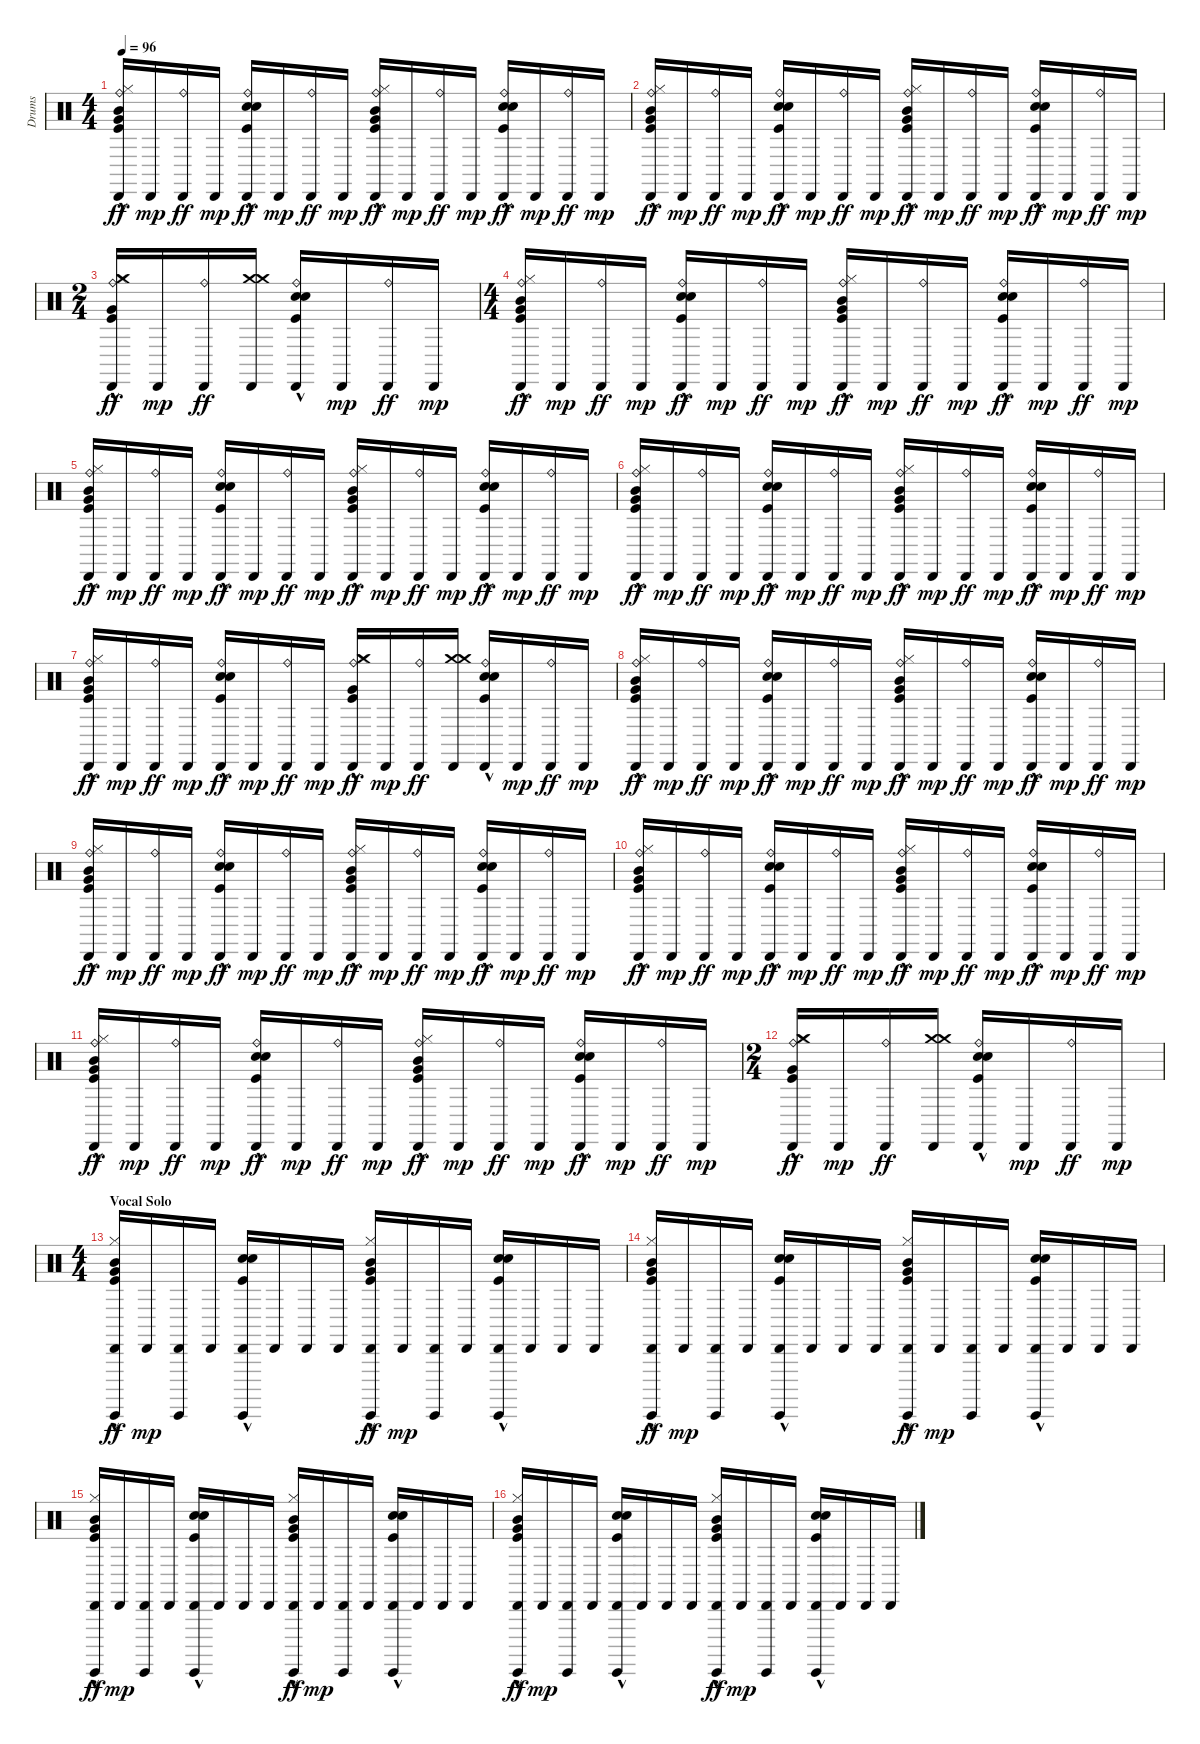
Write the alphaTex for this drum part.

\track ("Drums" "Drums") {instrument percussion}
\staff {score}
\articulation defaults
\ts (4 4)
\tempo 96
\clef neutral
\ks c
("Kick (hit)"{hac} "Hi-Hat (closed)"{hac} "Very Low Tom (hit)"{hac} "Cabasa (hit)" "Ride (bell)" "Mid Tom (hit)"{hac}).16{dy ff} "Cabasa (hit)".16{dy mp} ("Cabasa (hit)" "Ride (bell)").16{dy ff} "Cabasa (hit)".16{dy mp} ("Kick (hit)"{hac} "Snare (hit) 2"{hac} "Electric Snare (hit)"{hac} "Cabasa (hit)" "Ride (bell)").16{dy ff} "Cabasa (hit)".16{dy mp} ("Cabasa (hit)" "Ride (bell)").16{dy ff} "Cabasa (hit)".16{dy mp} ("Kick (hit)"{hac} "Hi-Hat (closed)"{hac} "Very Low Tom (hit)"{hac} "Cabasa (hit)" "Ride (bell)" "Mid Tom (hit)"{hac}).16{dy ff} "Cabasa (hit)".16{dy mp} ("Cabasa (hit)" "Ride (bell)").16{dy ff} "Cabasa (hit)".16{dy mp} ("Kick (hit)"{hac} "Snare (hit) 2"{hac} "Electric Snare (hit)"{hac} "Cabasa (hit)" "Ride (bell)").16{dy ff} "Cabasa (hit)".16{dy mp} ("Cabasa (hit)" "Ride (bell)").16{dy ff} "Cabasa (hit)".16{dy mp} |
("Kick (hit)"{hac} "Hi-Hat (closed)"{hac} "Very Low Tom (hit)"{hac} "Cabasa (hit)" "Ride (bell)" "Mid Tom (hit)"{hac}).16{dy ff} "Cabasa (hit)".16{dy mp} ("Cabasa (hit)" "Ride (bell)").16{dy ff} "Cabasa (hit)".16{dy mp} ("Kick (hit)"{hac} "Snare (hit) 2"{hac} "Electric Snare (hit)"{hac} "Cabasa (hit)" "Ride (bell)").16{dy ff} "Cabasa (hit)".16{dy mp} ("Cabasa (hit)" "Ride (bell)").16{dy ff} "Cabasa (hit)".16{dy mp} ("Kick (hit)"{hac} "Hi-Hat (closed)"{hac} "Very Low Tom (hit)"{hac} "Cabasa (hit)" "Ride (bell)" "Mid Tom (hit)").16{dy ff} "Cabasa (hit)".16{dy mp} ("Cabasa (hit)" "Ride (bell)").16{dy ff} "Cabasa (hit)".16{dy mp} ("Kick (hit)"{hac} "Snare (hit) 2"{hac} "Electric Snare (hit)"{hac} "Cabasa (hit)" "Ride (bell)").16{dy ff} "Cabasa (hit)".16{dy mp} ("Cabasa (hit)" "Ride (bell)").16{dy ff} "Cabasa (hit)".16{dy mp} |
\ts (2 4)
("Crash medium (hit)"{hac} "Kick (hit)"{hac} "Hi-Hat (closed)"{hac} "Very Low Tom (hit)"{hac} "Cabasa (hit)" "Ride (bell)").16{dy ff} "Cabasa (hit)".16{dy mp} ("Cabasa (hit)" "Ride (bell)").16{dy ff} ("Crash medium (hit)" "Cabasa (hit)" "Crash medium (hit)").16 ("Kick (hit)"{hac} "Snare (hit) 2"{hac} "Electric Snare (hit)"{hac} "Cabasa (hit)" "Ride (bell)").16 "Cabasa (hit)".16{dy mp} ("Cabasa (hit)" "Ride (bell)").16{dy ff} "Cabasa (hit)".16{dy mp} |
\ts (4 4)
("Kick (hit)"{hac} "Hi-Hat (closed)"{hac} "Very Low Tom (hit)"{hac} "Cabasa (hit)" "Ride (bell)" "Mid Tom (hit)"{hac}).16{dy ff} "Cabasa (hit)".16{dy mp} ("Cabasa (hit)" "Ride (bell)").16{dy ff} "Cabasa (hit)".16{dy mp} ("Kick (hit)"{hac} "Snare (hit) 2"{hac} "Electric Snare (hit)"{hac} "Cabasa (hit)" "Ride (bell)").16{dy ff} "Cabasa (hit)".16{dy mp} ("Cabasa (hit)" "Ride (bell)").16{dy ff} "Cabasa (hit)".16{dy mp} ("Kick (hit)"{hac} "Hi-Hat (closed)"{hac} "Very Low Tom (hit)"{hac} "Cabasa (hit)" "Ride (bell)" "Mid Tom (hit)"{hac}).16{dy ff} "Cabasa (hit)".16{dy mp} ("Cabasa (hit)" "Ride (bell)").16{dy ff} "Cabasa (hit)".16{dy mp} ("Kick (hit)"{hac} "Snare (hit) 2"{hac} "Electric Snare (hit)"{hac} "Cabasa (hit)" "Ride (bell)").16{dy ff} "Cabasa (hit)".16{dy mp} ("Cabasa (hit)" "Ride (bell)").16{dy ff} "Cabasa (hit)".16{dy mp} |
("Kick (hit)"{hac} "Hi-Hat (closed)"{hac} "Very Low Tom (hit)"{hac} "Cabasa (hit)" "Ride (bell)" "Mid Tom (hit)"{hac}).16{dy ff} "Cabasa (hit)".16{dy mp} ("Cabasa (hit)" "Ride (bell)").16{dy ff} "Cabasa (hit)".16{dy mp} ("Kick (hit)"{hac} "Snare (hit) 2"{hac} "Electric Snare (hit)"{hac} "Cabasa (hit)" "Ride (bell)").16{dy ff} "Cabasa (hit)".16{dy mp} ("Cabasa (hit)" "Ride (bell)").16{dy ff} "Cabasa (hit)".16{dy mp} ("Kick (hit)"{hac} "Hi-Hat (closed)"{hac} "Very Low Tom (hit)"{hac} "Cabasa (hit)" "Ride (bell)" "Mid Tom (hit)"{hac}).16{dy ff} "Cabasa (hit)".16{dy mp} ("Cabasa (hit)" "Ride (bell)").16{dy ff} "Cabasa (hit)".16{dy mp} ("Kick (hit)"{hac} "Snare (hit) 2"{hac} "Electric Snare (hit)"{hac} "Cabasa (hit)" "Ride (bell)").16{dy ff} "Cabasa (hit)".16{dy mp} ("Cabasa (hit)" "Ride (bell)").16{dy ff} "Cabasa (hit)".16{dy mp} |
("Kick (hit)"{hac} "Hi-Hat (closed)"{hac} "Very Low Tom (hit)"{hac} "Cabasa (hit)" "Ride (bell)" "Mid Tom (hit)"{hac}).16{dy ff} "Cabasa (hit)".16{dy mp} ("Cabasa (hit)" "Ride (bell)").16{dy ff} "Cabasa (hit)".16{dy mp} ("Kick (hit)"{hac} "Snare (hit) 2"{hac} "Electric Snare (hit)"{hac} "Cabasa (hit)" "Ride (bell)").16{dy ff} "Cabasa (hit)".16{dy mp} ("Cabasa (hit)" "Ride (bell)").16{dy ff} "Cabasa (hit)".16{dy mp} ("Kick (hit)"{hac} "Hi-Hat (closed)"{hac} "Very Low Tom (hit)"{hac} "Cabasa (hit)" "Ride (bell)" "Mid Tom (hit)"{hac}).16{dy ff} "Cabasa (hit)".16{dy mp} ("Cabasa (hit)" "Ride (bell)").16{dy ff} "Cabasa (hit)".16{dy mp} ("Kick (hit)"{hac} "Snare (hit) 2"{hac} "Electric Snare (hit)"{hac} "Cabasa (hit)" "Ride (bell)").16{dy ff} "Cabasa (hit)".16{dy mp} ("Cabasa (hit)" "Ride (bell)").16{dy ff} "Cabasa (hit)".16{dy mp} |
("Kick (hit)"{hac} "Hi-Hat (closed)"{hac} "Very Low Tom (hit)"{hac} "Cabasa (hit)" "Ride (bell)" "Mid Tom (hit)").16{dy ff} "Cabasa (hit)".16{dy mp} ("Cabasa (hit)" "Ride (bell)").16{dy ff} "Cabasa (hit)".16{dy mp} ("Kick (hit)"{hac} "Snare (hit) 2"{hac} "Electric Snare (hit)"{hac} "Cabasa (hit)" "Ride (bell)").16{dy ff} "Cabasa (hit)".16{dy mp} ("Cabasa (hit)" "Ride (bell)").16{dy ff} "Cabasa (hit)".16{dy mp} ("Crash medium (hit)"{hac} "Kick (hit)"{hac} "Hi-Hat (closed)"{hac} "Very Low Tom (hit)"{hac} "Cabasa (hit)" "Ride (bell)").16{dy ff} "Cabasa (hit)".16{dy mp} ("Cabasa (hit)" "Ride (bell)").16{dy ff} ("Crash medium (hit)" "Cabasa (hit)" "Crash medium (hit)").16 ("Kick (hit)"{hac} "Snare (hit) 2"{hac} "Electric Snare (hit)"{hac} "Cabasa (hit)" "Ride (bell)").16 "Cabasa (hit)".16{dy mp} ("Cabasa (hit)" "Ride (bell)").16{dy ff} "Cabasa (hit)".16{dy mp} |
("Kick (hit)"{hac} "Hi-Hat (closed)"{hac} "Very Low Tom (hit)"{hac} "Cabasa (hit)" "Ride (bell)" "Mid Tom (hit)"{hac}).16{dy ff} "Cabasa (hit)".16{dy mp} ("Cabasa (hit)" "Ride (bell)").16{dy ff} "Cabasa (hit)".16{dy mp} ("Kick (hit)"{hac} "Snare (hit) 2"{hac} "Electric Snare (hit)"{hac} "Cabasa (hit)" "Ride (bell)").16{dy ff} "Cabasa (hit)".16{dy mp} ("Cabasa (hit)" "Ride (bell)").16{dy ff} "Cabasa (hit)".16{dy mp} ("Kick (hit)"{hac} "Hi-Hat (closed)"{hac} "Very Low Tom (hit)"{hac} "Cabasa (hit)" "Ride (bell)" "Mid Tom (hit)"{hac}).16{dy ff} "Cabasa (hit)".16{dy mp} ("Cabasa (hit)" "Ride (bell)").16{dy ff} "Cabasa (hit)".16{dy mp} ("Kick (hit)"{hac} "Snare (hit) 2"{hac} "Electric Snare (hit)"{hac} "Cabasa (hit)" "Ride (bell)").16{dy ff} "Cabasa (hit)".16{dy mp} ("Cabasa (hit)" "Ride (bell)").16{dy ff} "Cabasa (hit)".16{dy mp} |
("Kick (hit)"{hac} "Hi-Hat (closed)"{hac} "Very Low Tom (hit)"{hac} "Cabasa (hit)" "Ride (bell)" "Mid Tom (hit)"{hac}).16{dy ff} "Cabasa (hit)".16{dy mp} ("Cabasa (hit)" "Ride (bell)").16{dy ff} "Cabasa (hit)".16{dy mp} ("Kick (hit)"{hac} "Snare (hit) 2"{hac} "Electric Snare (hit)"{hac} "Cabasa (hit)" "Ride (bell)").16{dy ff} "Cabasa (hit)".16{dy mp} ("Cabasa (hit)" "Ride (bell)").16{dy ff} "Cabasa (hit)".16{dy mp} ("Kick (hit)"{hac} "Hi-Hat (closed)"{hac} "Very Low Tom (hit)"{hac} "Cabasa (hit)" "Ride (bell)" "Mid Tom (hit)"{hac}).16{dy ff} "Cabasa (hit)".16{dy mp} ("Cabasa (hit)" "Ride (bell)").16{dy ff} "Cabasa (hit)".16{dy mp} ("Kick (hit)"{hac} "Snare (hit) 2"{hac} "Electric Snare (hit)"{hac} "Cabasa (hit)" "Ride (bell)").16{dy ff} "Cabasa (hit)".16{dy mp} ("Cabasa (hit)" "Ride (bell)").16{dy ff} "Cabasa (hit)".16{dy mp} |
("Kick (hit)"{hac} "Hi-Hat (closed)"{hac} "Very Low Tom (hit)"{hac} "Cabasa (hit)" "Ride (bell)" "Mid Tom (hit)"{hac}).16{dy ff} "Cabasa (hit)".16{dy mp} ("Cabasa (hit)" "Ride (bell)").16{dy ff} "Cabasa (hit)".16{dy mp} ("Kick (hit)"{hac} "Snare (hit) 2"{hac} "Electric Snare (hit)"{hac} "Cabasa (hit)" "Ride (bell)").16{dy ff} "Cabasa (hit)".16{dy mp} ("Cabasa (hit)" "Ride (bell)").16{dy ff} "Cabasa (hit)".16{dy mp} ("Kick (hit)"{hac} "Hi-Hat (closed)"{hac} "Very Low Tom (hit)"{hac} "Cabasa (hit)" "Ride (bell)" "Mid Tom (hit)"{hac}).16{dy ff} "Cabasa (hit)".16{dy mp} ("Cabasa (hit)" "Ride (bell)").16{dy ff} "Cabasa (hit)".16{dy mp} ("Kick (hit)"{hac} "Snare (hit) 2"{hac} "Electric Snare (hit)"{hac} "Cabasa (hit)" "Ride (bell)").16{dy ff} "Cabasa (hit)".16{dy mp} ("Cabasa (hit)" "Ride (bell)").16{dy ff} "Cabasa (hit)".16{dy mp} |
("Kick (hit)"{hac} "Hi-Hat (closed)"{hac} "Very Low Tom (hit)"{hac} "Cabasa (hit)" "Ride (bell)" "Mid Tom (hit)"{hac}).16{dy ff} "Cabasa (hit)".16{dy mp} ("Cabasa (hit)" "Ride (bell)").16{dy ff} "Cabasa (hit)".16{dy mp} ("Kick (hit)"{hac} "Snare (hit) 2"{hac} "Electric Snare (hit)"{hac} "Cabasa (hit)" "Ride (bell)").16{dy ff} "Cabasa (hit)".16{dy mp} ("Cabasa (hit)" "Ride (bell)").16{dy ff} "Cabasa (hit)".16{dy mp} ("Kick (hit)"{hac} "Hi-Hat (closed)"{hac} "Very Low Tom (hit)"{hac} "Cabasa (hit)" "Ride (bell)" "Mid Tom (hit)").16{dy ff} "Cabasa (hit)".16{dy mp} ("Cabasa (hit)" "Ride (bell)").16{dy ff} "Cabasa (hit)".16{dy mp} ("Kick (hit)"{hac} "Snare (hit) 2"{hac} "Electric Snare (hit)"{hac} "Cabasa (hit)" "Ride (bell)").16{dy ff} "Cabasa (hit)".16{dy mp} ("Cabasa (hit)" "Ride (bell)").16{dy ff} "Cabasa (hit)".16{dy mp} |
\ts (2 4)
("Crash medium (hit)"{hac} "Kick (hit)"{hac} "Hi-Hat (closed)"{hac} "Very Low Tom (hit)"{hac} "Cabasa (hit)" "Ride (bell)").16{dy ff} "Cabasa (hit)".16{dy mp} ("Cabasa (hit)" "Ride (bell)").16{dy ff} ("Crash medium (hit)" "Cabasa (hit)" "Crash medium (hit)").16 ("Kick (hit)"{hac} "Snare (hit) 2"{hac} "Electric Snare (hit)"{hac} "Cabasa (hit)" "Ride (bell)").16 "Cabasa (hit)".16{dy mp} ("Cabasa (hit)" "Ride (bell)").16{dy ff} "Cabasa (hit)".16{dy mp} |
\ts (4 4)
\section ("" "Vocal Solo")
("Kick (hit)"{hac} "Hi-Hat (closed)"{hac} "Very Low Tom (hit)"{hac} "Cabasa (hit)" "Guiro (hit)" "Mid Tom (hit)"{hac}).16{dy ff} "Cabasa (hit)".16{dy mp} ("Cabasa (hit)" "Guiro (hit)").16 "Cabasa (hit)".16 ("Kick (hit)"{hac} "Snare (hit) 2"{hac} "Electric Snare (hit)"{hac} "Cabasa (hit)" "Guiro (hit)"{hac}).16 "Cabasa (hit)".16 "Cabasa (hit)".16 "Cabasa (hit)".16 ("Kick (hit)"{hac} "Hi-Hat (closed)"{hac} "Very Low Tom (hit)"{hac} "Cabasa (hit)" "Guiro (hit)" "Mid Tom (hit)"{hac}).16{dy ff} "Cabasa (hit)".16{dy mp} ("Cabasa (hit)" "Guiro (hit)").16 "Cabasa (hit)".16 ("Kick (hit)"{hac} "Snare (hit) 2"{hac} "Electric Snare (hit)"{hac} "Cabasa (hit)" "Guiro (hit)"{hac}).16 "Cabasa (hit)".16 "Cabasa (hit)".16 "Cabasa (hit)".16 |
("Kick (hit)"{hac} "Hi-Hat (closed)"{hac} "Very Low Tom (hit)"{hac} "Cabasa (hit)" "Guiro (hit)" "Mid Tom (hit)"{hac}).16{dy ff} "Cabasa (hit)".16{dy mp} ("Cabasa (hit)" "Guiro (hit)").16 "Cabasa (hit)".16 ("Kick (hit)"{hac} "Snare (hit) 2"{hac} "Electric Snare (hit)"{hac} "Cabasa (hit)" "Guiro (hit)"{hac}).16 "Cabasa (hit)".16 "Cabasa (hit)".16 "Cabasa (hit)".16 ("Kick (hit)"{hac} "Hi-Hat (closed)"{hac} "Very Low Tom (hit)"{hac} "Cabasa (hit)" "Guiro (hit)" "Mid Tom (hit)"{hac}).16{dy ff} "Cabasa (hit)".16{dy mp} ("Cabasa (hit)" "Guiro (hit)").16 "Cabasa (hit)".16 ("Kick (hit)"{hac} "Snare (hit) 2"{hac} "Electric Snare (hit)"{hac} "Cabasa (hit)" "Guiro (hit)"{hac}).16 "Cabasa (hit)".16 "Cabasa (hit)".16 "Cabasa (hit)".16 |
("Kick (hit)"{hac} "Hi-Hat (closed)"{hac} "Very Low Tom (hit)"{hac} "Cabasa (hit)" "Guiro (hit)" "Mid Tom (hit)"{hac}).16{dy ff} "Cabasa (hit)".16{dy mp} ("Cabasa (hit)" "Guiro (hit)").16 "Cabasa (hit)".16 ("Kick (hit)"{hac} "Snare (hit) 2"{hac} "Electric Snare (hit)"{hac} "Cabasa (hit)" "Guiro (hit)"{hac}).16 "Cabasa (hit)".16 "Cabasa (hit)".16 "Cabasa (hit)".16 ("Kick (hit)"{hac} "Hi-Hat (closed)"{hac} "Very Low Tom (hit)"{hac} "Cabasa (hit)" "Guiro (hit)" "Mid Tom (hit)"{hac}).16{dy ff} "Cabasa (hit)".16{dy mp} ("Cabasa (hit)" "Guiro (hit)").16 "Cabasa (hit)".16 ("Kick (hit)"{hac} "Snare (hit) 2"{hac} "Electric Snare (hit)"{hac} "Cabasa (hit)" "Guiro (hit)"{hac}).16 "Cabasa (hit)".16 "Cabasa (hit)".16 "Cabasa (hit)".16 |
("Kick (hit)"{hac} "Hi-Hat (closed)"{hac} "Very Low Tom (hit)"{hac} "Cabasa (hit)" "Guiro (hit)" "Mid Tom (hit)"{hac}).16{dy ff} "Cabasa (hit)".16{dy mp} ("Cabasa (hit)" "Guiro (hit)").16 "Cabasa (hit)".16 ("Kick (hit)"{hac} "Snare (hit) 2"{hac} "Electric Snare (hit)"{hac} "Cabasa (hit)" "Guiro (hit)"{hac}).16 "Cabasa (hit)".16 "Cabasa (hit)".16 "Cabasa (hit)".16 ("Kick (hit)"{hac} "Hi-Hat (closed)"{hac} "Very Low Tom (hit)"{hac} "Cabasa (hit)" "Guiro (hit)" "Mid Tom (hit)"{hac}).16{dy ff} "Cabasa (hit)".16{dy mp} ("Cabasa (hit)" "Guiro (hit)").16 "Cabasa (hit)".16 ("Kick (hit)"{hac} "Snare (hit) 2"{hac} "Electric Snare (hit)"{hac} "Cabasa (hit)" "Guiro (hit)"{hac}).16 "Cabasa (hit)".16 "Cabasa (hit)".16 "Cabasa (hit)".16
